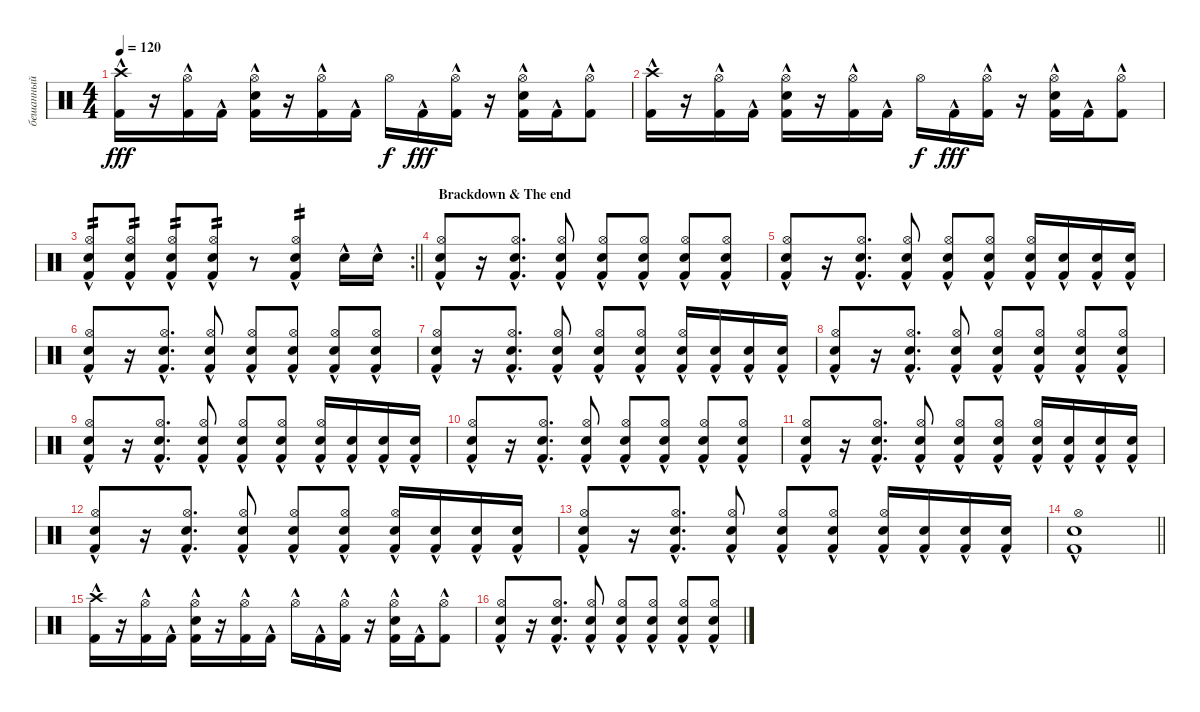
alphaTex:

\track ("бешанный" "бешанный") {instrument percussion}
\staff {score}
\articulation defaults
\ts (4 4)
\tempo 120
\clef neutral
\ks c
("Kick (hit) 2"{hac} "Crash high (hit)"{hac}).16{dy fff} r.16 ("Kick (hit) 2"{hac} "Hi-Hat (open)").16 "Kick (hit) 2"{hac}.16 ("Kick (hit) 2"{hac} "Snare (hit) 2"{hac} "Hi-Hat (open)").16 r.16 ("Kick (hit) 2"{hac} "Hi-Hat (open)").16 "Kick (hit) 2"{hac}.16 "Hi-Hat (open)".16{dy f} "Kick (hit) 2"{hac}.16{dy fff} ("Kick (hit) 2"{hac} "Hi-Hat (open)").16 r.16 ("Kick (hit) 2"{hac} "Snare (hit) 2"{hac} "Hi-Hat (open)").16 "Kick (hit) 2"{hac}.16 ("Kick (hit) 2"{hac} "Hi-Hat (open)").8 |
("Kick (hit) 2"{hac} "Crash high (hit)"{hac}).16 r.16 ("Kick (hit) 2"{hac} "Hi-Hat (open)").16 "Kick (hit) 2"{hac}.16 ("Kick (hit) 2"{hac} "Snare (hit) 2"{hac} "Hi-Hat (open)").16 r.16 ("Kick (hit) 2"{hac} "Hi-Hat (open)").16 "Kick (hit) 2"{hac}.16 "Hi-Hat (open)".16{dy f} "Kick (hit) 2"{hac}.16{dy fff} ("Kick (hit) 2"{hac} "Hi-Hat (open)").16 r.16 ("Kick (hit) 2"{hac} "Snare (hit) 2"{hac} "Hi-Hat (open)").16 "Kick (hit) 2"{hac}.16 ("Kick (hit) 2"{hac} "Hi-Hat (open)").8 |
\rc 2
\barLineRight lightlight
("Kick (hit) 2"{hac} "Snare (hit) 2"{hac} "Hi-Hat (open)").8{tp 2} ("Kick (hit) 2"{hac} "Snare (hit) 2"{hac} "Hi-Hat (open)").8{tp 2} ("Kick (hit) 2"{hac} "Snare (hit) 2"{hac} "Hi-Hat (open)").8{tp 2} ("Kick (hit) 2"{hac} "Snare (hit) 2"{hac} "Hi-Hat (open)").8{tp 2} r.8 ("Kick (hit) 2"{hac} "Snare (hit) 2"{hac} "Hi-Hat (open)").4{tp 2} "Snare (hit) 2"{hac}.16 "Snare (hit) 2"{hac}.16 |
\section ("" " Brackdown & The end")
("Kick (hit) 2"{hac} "Snare (hit) 2"{hac} "Hi-Hat (open)").8 r.16 ("Kick (hit) 2"{hac} "Snare (hit) 2"{hac} "Hi-Hat (open)").8{d} ("Kick (hit) 2"{hac} "Snare (hit) 2"{hac} "Hi-Hat (open)").8 ("Kick (hit) 2"{hac} "Snare (hit) 2"{hac} "Hi-Hat (open)").8 ("Kick (hit) 2"{hac} "Snare (hit) 2"{hac} "Hi-Hat (open)").8 ("Kick (hit) 2"{hac} "Snare (hit) 2"{hac} "Hi-Hat (open)").8 ("Kick (hit) 2"{hac} "Snare (hit) 2"{hac} "Hi-Hat (open)").8 |
("Kick (hit) 2"{hac} "Snare (hit) 2"{hac} "Hi-Hat (open)").8 r.16 ("Kick (hit) 2"{hac} "Snare (hit) 2"{hac} "Hi-Hat (open)").8{d} ("Kick (hit) 2"{hac} "Snare (hit) 2"{hac} "Hi-Hat (open)").8 ("Kick (hit) 2"{hac} "Snare (hit) 2"{hac} "Hi-Hat (open)").8 ("Kick (hit) 2"{hac} "Snare (hit) 2"{hac} "Hi-Hat (open)").8 ("Kick (hit) 2"{hac} "Snare (hit) 2"{hac} "Hi-Hat (open)").16 ("Kick (hit) 2"{hac} "Snare (hit) 2"{hac}).16 ("Kick (hit) 2"{hac} "Snare (hit) 2"{hac}).16 ("Kick (hit) 2"{hac} "Snare (hit) 2"{hac}).16 |
("Kick (hit) 2"{hac} "Snare (hit) 2"{hac} "Hi-Hat (open)").8 r.16 ("Kick (hit) 2"{hac} "Snare (hit) 2"{hac} "Hi-Hat (open)").8{d} ("Kick (hit) 2"{hac} "Snare (hit) 2"{hac} "Hi-Hat (open)").8 ("Kick (hit) 2"{hac} "Snare (hit) 2"{hac} "Hi-Hat (open)").8 ("Kick (hit) 2"{hac} "Snare (hit) 2"{hac} "Hi-Hat (open)").8 ("Kick (hit) 2"{hac} "Snare (hit) 2"{hac} "Hi-Hat (open)").8 ("Kick (hit) 2"{hac} "Snare (hit) 2"{hac} "Hi-Hat (open)").8 |
("Kick (hit) 2"{hac} "Snare (hit) 2"{hac} "Hi-Hat (open)").8 r.16 ("Kick (hit) 2"{hac} "Snare (hit) 2"{hac} "Hi-Hat (open)").8{d} ("Kick (hit) 2"{hac} "Snare (hit) 2"{hac} "Hi-Hat (open)").8 ("Kick (hit) 2"{hac} "Snare (hit) 2"{hac} "Hi-Hat (open)").8 ("Kick (hit) 2"{hac} "Snare (hit) 2"{hac} "Hi-Hat (open)").8 ("Kick (hit) 2"{hac} "Snare (hit) 2"{hac} "Hi-Hat (open)").16 ("Kick (hit) 2"{hac} "Snare (hit) 2"{hac}).16 ("Kick (hit) 2"{hac} "Snare (hit) 2"{hac}).16 ("Kick (hit) 2"{hac} "Snare (hit) 2"{hac}).16 |
("Kick (hit) 2"{hac} "Snare (hit) 2"{hac} "Hi-Hat (open)").8 r.16 ("Kick (hit) 2"{hac} "Snare (hit) 2"{hac} "Hi-Hat (open)").8{d} ("Kick (hit) 2"{hac} "Snare (hit) 2"{hac} "Hi-Hat (open)"{hac}).8 ("Kick (hit) 2"{hac} "Snare (hit) 2"{hac} "Hi-Hat (open)").8 ("Kick (hit) 2"{hac} "Snare (hit) 2"{hac} "Hi-Hat (open)").8 ("Kick (hit) 2"{hac} "Snare (hit) 2"{hac} "Hi-Hat (open)").8 ("Kick (hit) 2"{hac} "Snare (hit) 2"{hac} "Hi-Hat (open)").8 |
("Kick (hit) 2"{hac} "Snare (hit) 2"{hac} "Hi-Hat (open)"{hac}).8 r.16 ("Kick (hit) 2"{hac} "Snare (hit) 2"{hac} "Hi-Hat (open)"{hac}).8{d} ("Kick (hit) 2"{hac} "Snare (hit) 2"{hac} "Hi-Hat (open)"{hac}).8 ("Kick (hit) 2"{hac} "Snare (hit) 2"{hac} "Hi-Hat (open)"{hac}).8 ("Kick (hit) 2"{hac} "Snare (hit) 2"{hac} "Hi-Hat (open)"{hac}).8 ("Kick (hit) 2"{hac} "Snare (hit) 2"{hac} "Hi-Hat (open)"{hac}).16 ("Kick (hit) 2"{hac} "Snare (hit) 2"{hac}).16 ("Kick (hit) 2"{hac} "Snare (hit) 2"{hac}).16 ("Kick (hit) 2"{hac} "Snare (hit) 2"{hac}).16 |
("Kick (hit) 2"{hac} "Snare (hit) 2"{hac} "Hi-Hat (open)"{hac}).8 r.16 ("Kick (hit) 2"{hac} "Snare (hit) 2"{hac} "Hi-Hat (open)"{hac}).8{d} ("Kick (hit) 2"{hac} "Snare (hit) 2"{hac} "Hi-Hat (open)"{hac}).8 ("Kick (hit) 2"{hac} "Snare (hit) 2"{hac} "Hi-Hat (open)"{hac}).8 ("Kick (hit) 2"{hac} "Snare (hit) 2"{hac} "Hi-Hat (open)"{hac}).8 ("Kick (hit) 2"{hac} "Snare (hit) 2"{hac} "Hi-Hat (open)"{hac}).8 ("Kick (hit) 2"{hac} "Snare (hit) 2"{hac} "Hi-Hat (open)"{hac}).8 |
("Kick (hit) 2"{hac} "Snare (hit) 2"{hac} "Hi-Hat (open)"{hac}).8 r.16 ("Kick (hit) 2"{hac} "Snare (hit) 2"{hac} "Hi-Hat (open)"{hac}).8{d} ("Kick (hit) 2"{hac} "Snare (hit) 2"{hac} "Hi-Hat (open)"{hac}).8 ("Kick (hit) 2"{hac} "Snare (hit) 2"{hac} "Hi-Hat (open)"{hac}).8 ("Kick (hit) 2"{hac} "Snare (hit) 2"{hac} "Hi-Hat (open)"{hac}).8 ("Kick (hit) 2"{hac} "Snare (hit) 2"{hac} "Hi-Hat (open)"{hac}).16 ("Kick (hit) 2"{hac} "Snare (hit) 2"{hac}).16 ("Kick (hit) 2"{hac} "Snare (hit) 2"{hac}).16 ("Kick (hit) 2"{hac} "Snare (hit) 2"{hac}).16 |
("Kick (hit) 2"{hac} "Snare (hit) 2"{hac} "Hi-Hat (open)"{hac}).8 r.16 ("Kick (hit) 2"{hac} "Snare (hit) 2"{hac} "Hi-Hat (open)"{hac}).8{d} ("Kick (hit) 2"{hac} "Snare (hit) 2"{hac} "Hi-Hat (open)"{hac}).8 ("Kick (hit) 2"{hac} "Snare (hit) 2"{hac} "Hi-Hat (open)"{hac}).8 ("Kick (hit) 2"{hac} "Snare (hit) 2"{hac} "Hi-Hat (open)"{hac}).8 ("Kick (hit) 2"{hac} "Snare (hit) 2"{hac} "Hi-Hat (open)"{hac}).16 ("Kick (hit) 2"{hac} "Snare (hit) 2"{hac}).16 ("Kick (hit) 2"{hac} "Snare (hit) 2"{hac}).16 ("Kick (hit) 2"{hac} "Snare (hit) 2"{hac}).16 |
("Kick (hit) 2"{hac} "Snare (hit) 2"{hac} "Hi-Hat (open)"{hac}).8 r.16 ("Kick (hit) 2"{hac} "Snare (hit) 2"{hac} "Hi-Hat (open)"{hac}).8{d} ("Kick (hit) 2"{hac} "Snare (hit) 2"{hac} "Hi-Hat (open)"{hac}).8 ("Kick (hit) 2"{hac} "Snare (hit) 2"{hac} "Hi-Hat (open)"{hac}).8 ("Kick (hit) 2"{hac} "Snare (hit) 2"{hac} "Hi-Hat (open)"{hac}).8 ("Kick (hit) 2"{hac} "Snare (hit) 2"{hac} "Hi-Hat (open)"{hac}).16 ("Kick (hit) 2"{hac} "Snare (hit) 2"{hac}).16 ("Kick (hit) 2"{hac} "Snare (hit) 2"{hac}).16 ("Kick (hit) 2"{hac} "Snare (hit) 2"{hac}).16 |
\barLineRight lightlight
("Kick (hit) 2"{hac} "Snare (hit) 2"{hac} "Hi-Hat (open)"{hac}).1 |
("Kick (hit) 2"{hac} "Crash high (hit)"{hac}).16 r.16 ("Kick (hit) 2"{hac} "Hi-Hat (open)"{hac}).16 "Kick (hit) 2"{hac}.16 ("Kick (hit) 2"{hac} "Snare (hit) 2"{hac} "Hi-Hat (open)"{hac}).16 r.16 ("Kick (hit) 2"{hac} "Hi-Hat (open)"{hac}).16 "Kick (hit) 2"{hac}.16 "Hi-Hat (open)"{hac}.16 "Kick (hit) 2"{hac}.16 ("Kick (hit) 2"{hac} "Hi-Hat (open)"{hac}).16 r.16 ("Kick (hit) 2"{hac} "Snare (hit) 2"{hac} "Hi-Hat (open)"{hac}).16 "Kick (hit) 2"{hac}.16 ("Kick (hit) 2"{hac} "Hi-Hat (open)"{hac}).8 |
("Kick (hit) 2"{hac} "Snare (hit) 2"{hac} "Hi-Hat (open)"{hac}).8 r.16 ("Kick (hit) 2"{hac} "Snare (hit) 2"{hac} "Hi-Hat (open)"{hac}).8{d} ("Kick (hit) 2"{hac} "Snare (hit) 2"{hac} "Hi-Hat (open)"{hac}).8 ("Kick (hit) 2"{hac} "Snare (hit) 2"{hac} "Hi-Hat (open)"{hac}).8 ("Kick (hit) 2"{hac} "Snare (hit) 2"{hac} "Hi-Hat (open)"{hac}).8 ("Kick (hit) 2"{hac} "Snare (hit) 2"{hac} "Hi-Hat (open)"{hac}).8 ("Kick (hit) 2"{hac} "Snare (hit) 2"{hac} "Hi-Hat (open)"{hac}).8
